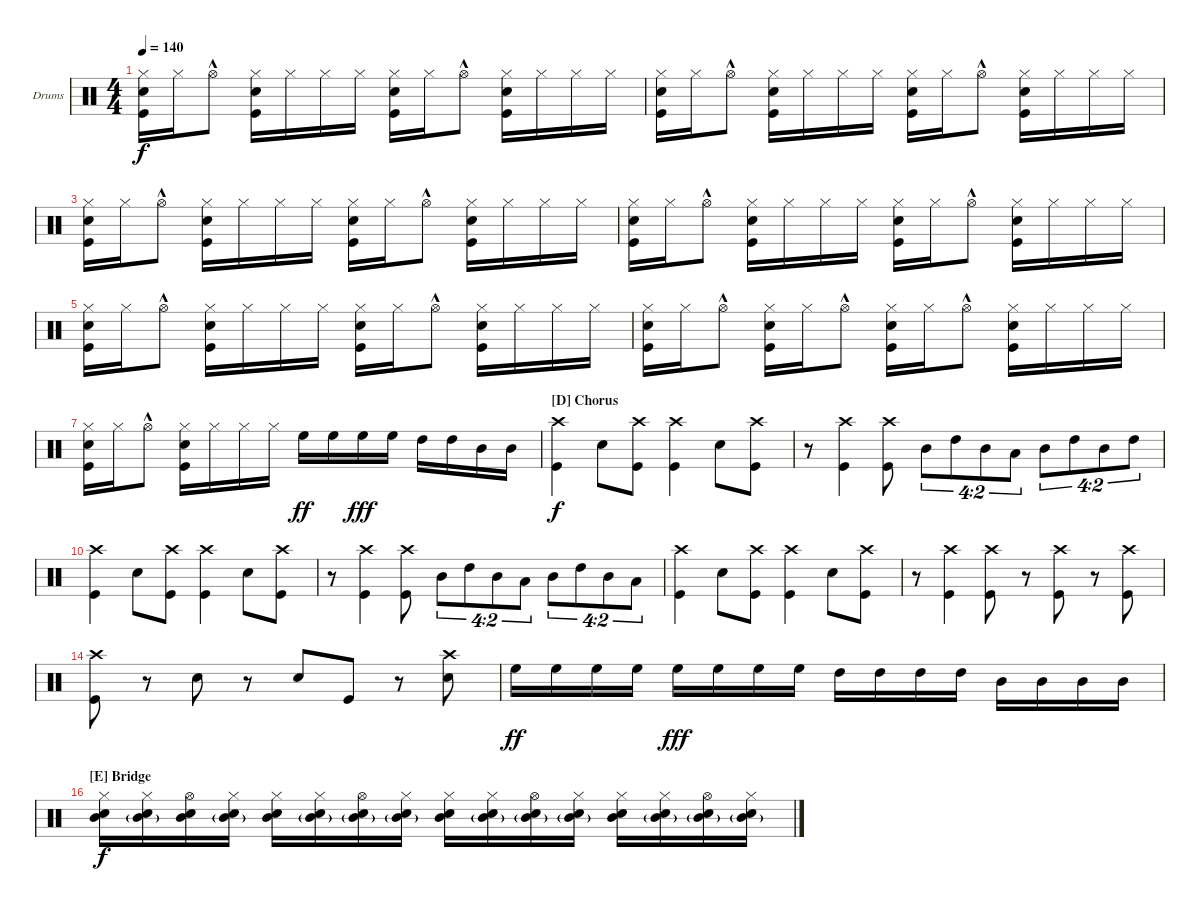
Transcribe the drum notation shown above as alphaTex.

\bracketExtendMode nobrackets
\firstSystemTrackNameOrientation horizontal
\otherSystemsTrackNameOrientation horizontal
\defaultBarNumberDisplay FirstOfSystem
\track ("Drumkit" "Drums") {instrument percussion}
\staff {score}
\articulation defaults
\ts (4 4)
\tempo 140
\clef neutral
\ks c
("Hi-Hat (closed)" "Kick (hit)" "Snare (hit) 2").16{dy f} "Hi-Hat (closed)".16 "Hi-Hat (open)"{hac}.8 ("Hi-Hat (closed)" "Kick (hit)" "Snare (hit) 2").16 "Hi-Hat (closed)".16 "Hi-Hat (closed)".16 "Hi-Hat (closed)".16 ("Hi-Hat (closed)" "Kick (hit)" "Snare (hit) 2").16 "Hi-Hat (closed)".16 "Hi-Hat (open)"{hac}.8 ("Hi-Hat (closed)" "Kick (hit)" "Snare (hit) 2").16 "Hi-Hat (closed)".16 "Hi-Hat (closed)".16 "Hi-Hat (closed)".16 |
("Hi-Hat (closed)" "Kick (hit)" "Snare (hit) 2").16 "Hi-Hat (closed)".16 "Hi-Hat (open)"{hac}.8 ("Hi-Hat (closed)" "Kick (hit)" "Snare (hit) 2").16 "Hi-Hat (closed)".16 "Hi-Hat (closed)".16 "Hi-Hat (closed)".16 ("Hi-Hat (closed)" "Kick (hit)" "Snare (hit) 2").16 "Hi-Hat (closed)".16 "Hi-Hat (open)"{hac}.8 ("Hi-Hat (closed)" "Kick (hit)" "Snare (hit) 2").16 "Hi-Hat (closed)".16 "Hi-Hat (closed)".16 "Hi-Hat (closed)".16 |
("Hi-Hat (closed)" "Kick (hit)" "Snare (hit) 2").16 "Hi-Hat (closed)".16 "Hi-Hat (open)"{hac}.8 ("Hi-Hat (closed)" "Kick (hit)" "Snare (hit) 2").16 "Hi-Hat (closed)".16 "Hi-Hat (closed)".16 "Hi-Hat (closed)".16 ("Hi-Hat (closed)" "Kick (hit)" "Snare (hit) 2").16 "Hi-Hat (closed)".16 "Hi-Hat (open)"{hac}.8 ("Hi-Hat (closed)" "Kick (hit)" "Snare (hit) 2").16 "Hi-Hat (closed)".16 "Hi-Hat (closed)".16 "Hi-Hat (closed)".16 |
("Hi-Hat (closed)" "Kick (hit)" "Snare (hit) 2").16 "Hi-Hat (closed)".16 "Hi-Hat (open)"{hac}.8 ("Hi-Hat (closed)" "Kick (hit)" "Snare (hit) 2").16 "Hi-Hat (closed)".16 "Hi-Hat (closed)".16 "Hi-Hat (closed)".16 ("Hi-Hat (closed)" "Kick (hit)" "Snare (hit) 2").16 "Hi-Hat (closed)".16 "Hi-Hat (open)"{hac}.8 ("Hi-Hat (closed)" "Kick (hit)" "Snare (hit) 2").16 "Hi-Hat (closed)".16 "Hi-Hat (closed)".16 "Hi-Hat (closed)".16 |
("Hi-Hat (closed)" "Kick (hit)" "Snare (hit) 2").16 "Hi-Hat (closed)".16 "Hi-Hat (open)"{hac}.8 ("Hi-Hat (closed)" "Kick (hit)" "Snare (hit) 2").16 "Hi-Hat (closed)".16 "Hi-Hat (closed)".16 "Hi-Hat (closed)".16 ("Hi-Hat (closed)" "Kick (hit)" "Snare (hit) 2").16 "Hi-Hat (closed)".16 "Hi-Hat (open)"{hac}.8 ("Hi-Hat (closed)" "Kick (hit)" "Snare (hit) 2").16 "Hi-Hat (closed)".16 "Hi-Hat (closed)".16 "Hi-Hat (closed)".16 |
("Hi-Hat (closed)" "Kick (hit)" "Snare (hit) 2").16 "Hi-Hat (closed)".16 "Hi-Hat (open)"{hac}.8 ("Hi-Hat (closed)" "Kick (hit)" "Snare (hit) 2").16 "Hi-Hat (closed)".16 "Hi-Hat (open)"{hac}.8 ("Hi-Hat (closed)" "Kick (hit)" "Snare (hit) 2").16 "Hi-Hat (closed)".16 "Hi-Hat (open)"{hac}.8 ("Hi-Hat (closed)" "Kick (hit)" "Snare (hit) 2").16 "Hi-Hat (closed)".16 "Hi-Hat (closed)".16 "Hi-Hat (closed)".16 |
("Hi-Hat (closed)" "Kick (hit)" "Snare (hit) 2").16 "Hi-Hat (closed)".16 "Hi-Hat (open)"{hac}.8 ("Hi-Hat (closed)" "Kick (hit)" "Snare (hit) 2").16 "Hi-Hat (closed)".16 "Hi-Hat (closed)".16 "Hi-Hat (closed)".16 "High Floor Tom (hit)".16{dy ff} "High Floor Tom (hit)".16 "High Floor Tom (hit)".16{dy fff} "High Floor Tom (hit)".16 "High Tom (hit)".16 "High Tom (hit)".16 "Mid Tom (hit)".16 "Mid Tom (hit)".16 |
\section ("D" "Chorus")
("Kick (hit)" "Crash high (hit)").4{dy f} "Snare (hit) 2".8 ("Crash high (hit)" "Kick (hit)").8 ("Crash high (hit)" "Kick (hit)").4 "Snare (hit) 2".8 ("Crash high (hit)" "Kick (hit)").8 |
r.8 ("Crash high (hit)" "Kick (hit)").4 ("Crash high (hit)" "Kick (hit)").8 "Mid Tom (hit)".8{tu (4 2)} "High Tom (hit)".8{tu (4 2)} "Mid Tom (hit)".8{tu (4 2)} "Low Tom (hit)".8{tu (4 2)} "Mid Tom (hit)".8{tu (4 2)} "High Tom (hit)".8{tu (4 2)} "Mid Tom (hit)".8{tu (4 2)} "High Tom (hit)".8{tu (4 2)} |
("Kick (hit)" "Crash high (hit)").4 "Snare (hit) 2".8 ("Crash high (hit)" "Kick (hit)").8 ("Crash high (hit)" "Kick (hit)").4 "Snare (hit) 2".8 ("Crash high (hit)" "Kick (hit)").8 |
r.8 ("Crash high (hit)" "Kick (hit)").4 ("Crash high (hit)" "Kick (hit)").8 "Mid Tom (hit)".8{tu (4 2)} "High Tom (hit)".8{tu (4 2)} "Mid Tom (hit)".8{tu (4 2)} "Low Tom (hit)".8{tu (4 2)} "Mid Tom (hit)".8{tu (4 2)} "High Tom (hit)".8{tu (4 2)} "Mid Tom (hit)".8{tu (4 2)} "Low Tom (hit)".8{tu (4 2)} |
("Kick (hit)" "Crash high (hit)").4 "Snare (hit) 2".8 ("Crash high (hit)" "Kick (hit)").8 ("Crash high (hit)" "Kick (hit)").4 "Snare (hit) 2".8 ("Crash high (hit)" "Kick (hit)").8 |
r.8 ("Crash high (hit)" "Kick (hit)").4 ("Crash high (hit)" "Kick (hit)").8 r.8 ("Kick (hit)" "Crash high (hit)").8 r.8 ("Kick (hit)" "Crash high (hit)").8 |
("Kick (hit)" "Crash high (hit)").8 r.8 "Snare (hit) 2".8 r.8 "Snare (hit) 2".8 "Kick (hit)".8 r.8 ("Crash high (hit)" "Snare (hit) 2").8 |
"High Floor Tom (hit)".16{dy ff} "High Floor Tom (hit)".16 "High Floor Tom (hit)".16 "High Floor Tom (hit)".16 "High Floor Tom (hit)".16{dy fff} "High Floor Tom (hit)".16 "High Floor Tom (hit)".16 "High Floor Tom (hit)".16 "High Tom (hit)".16 "High Tom (hit)".16 "High Tom (hit)".16 "High Tom (hit)".16 "Mid Tom (hit)".16 "Mid Tom (hit)".16 "Mid Tom (hit)".16 "Mid Tom (hit)".16 |
\section ("E" "Bridge")
("Hi-Hat (closed)" "Mid Tom (hit)" "Snare (hit) 2").16{dy f} ("Mid Tom (hit)"{g} "Hi-Hat (closed)" "Snare (hit) 2").16 ("Mid Tom (hit)" "Hi-Hat (open)" "Snare (hit) 2").16 ("Mid Tom (hit)"{g} "Hi-Hat (closed)" "Snare (hit) 2").16 ("Hi-Hat (closed)" "Mid Tom (hit)" "Snare (hit) 2").16 ("Mid Tom (hit)"{g} "Hi-Hat (closed)" "Snare (hit) 2").16 ("Mid Tom (hit)"{g} "Hi-Hat (open)" "Snare (hit) 2").16 ("Hi-Hat (closed)" "Mid Tom (hit)"{g} "Snare (hit) 2").16 ("Hi-Hat (closed)" "Mid Tom (hit)" "Snare (hit) 2").16 ("Mid Tom (hit)"{g} "Hi-Hat (closed)" "Snare (hit) 2").16 ("Mid Tom (hit)"{g} "Hi-Hat (open)" "Snare (hit) 2").16 ("Mid Tom (hit)"{g} "Hi-Hat (closed)" "Snare (hit) 2").16 ("Hi-Hat (closed)" "Mid Tom (hit)" "Snare (hit) 2").16 ("Mid Tom (hit)"{g} "Hi-Hat (closed)" "Snare (hit) 2").16 ("Mid Tom (hit)"{g} "Hi-Hat (open)" "Snare (hit) 2").16 ("Mid Tom (hit)"{g} "Hi-Hat (closed)" "Snare (hit) 2").16
